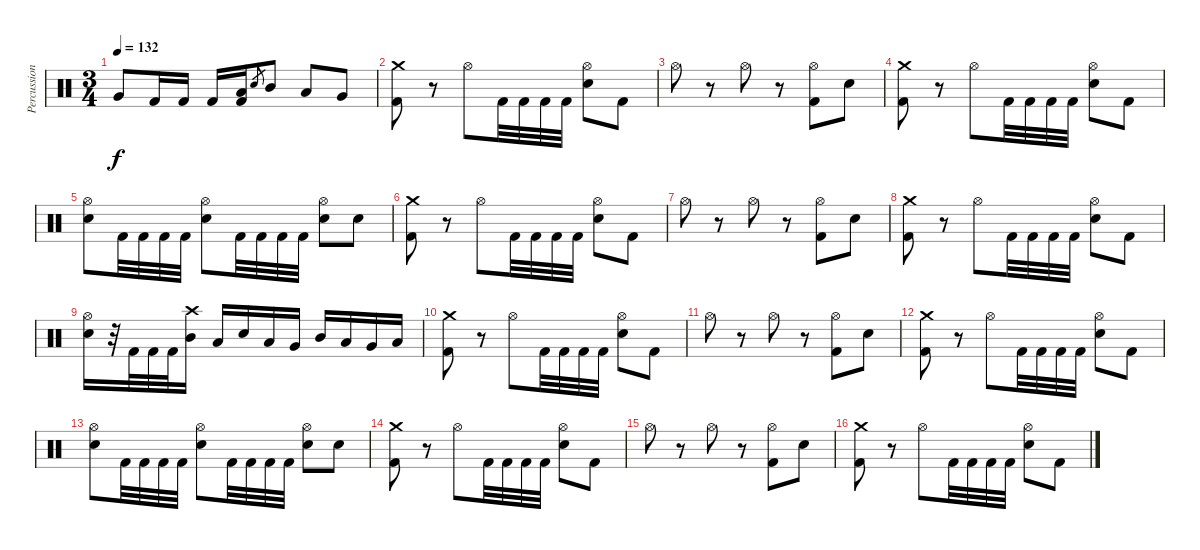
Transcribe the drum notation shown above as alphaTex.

\track ("Percussion" "Percussion") {instrument percussion}
\staff {score}
\articulation defaults
\ts (3 4)
\tempo 132
\clef neutral
\ks c "Very Low Tom (hit)".8{dy f} "Kick (hit) 2".16 "Kick (hit) 2".16 "Kick (hit) 2".16
("Low Tom (hit)" "Kick (hit) 2").16 "Electric Snare (hit)".8{gr} "Mid Tom (hit)".8 "Low Tom (hit)".8 "Very Low Tom (hit)".8 |
("Crash medium (hit)" "Kick (hit) 2").8 r.8 "Hi-Hat (open)".8 "Kick (hit) 2".32 "Kick (hit) 2".32 "Kick (hit) 2".32 "Kick (hit) 2".32 ("Hi-Hat (open)" "Electric Snare (hit)").8 "Kick (hit) 2".8 |
"Hi-Hat (open)".8 r.8 "Hi-Hat (open)".8 r.8 ("Hi-Hat (open)" "Kick (hit) 2").8 "Electric Snare (hit)".8 |
("Crash medium (hit)" "Kick (hit) 2").8 r.8 "Hi-Hat (open)".8 "Kick (hit) 2".32 "Kick (hit) 2".32 "Kick (hit) 2".32 "Kick (hit) 2".32 ("Hi-Hat (open)" "Electric Snare (hit)").8 "Kick (hit) 2".8 |
("Hi-Hat (open)" "Electric Snare (hit)").8 "Kick (hit) 2".32 "Kick (hit) 2".32 "Kick (hit) 2".32 "Kick (hit) 2".32 ("Hi-Hat (open)" "Electric Snare (hit)").8 "Kick (hit) 2".32 "Kick (hit) 2".32 "Kick (hit) 2".32 "Kick (hit) 2".32 ("Hi-Hat (open)" "Electric Snare (hit)").8 "Electric Snare (hit)".8 |
("Crash medium (hit)" "Kick (hit) 2").8 r.8 "Hi-Hat (open)".8 "Kick (hit) 2".32 "Kick (hit) 2".32 "Kick (hit) 2".32 "Kick (hit) 2".32 ("Hi-Hat (open)" "Electric Snare (hit)").8 "Kick (hit) 2".8 |
"Hi-Hat (open)".8 r.8 "Hi-Hat (open)".8 r.8 ("Hi-Hat (open)" "Kick (hit) 2").8 "Electric Snare (hit)".8 |
("Crash medium (hit)" "Kick (hit) 2").8 r.8 "Hi-Hat (open)".8 "Kick (hit) 2".32 "Kick (hit) 2".32 "Kick (hit) 2".32 "Kick (hit) 2".32 ("Hi-Hat (open)" "Electric Snare (hit)").8 "Kick (hit) 2".8 |
("Hi-Hat (open)" "Electric Snare (hit)").16 r.32 "Kick (hit) 2".32 "Kick (hit) 2".32 "Kick (hit) 2".32 ("Crash high (hit)" "Mid Tom (hit)").16 "Low Tom (hit)".16 "Electric Snare (hit)".16 "Low Tom (hit)".16 "Very Low Tom (hit)".16 "Mid Tom (hit)".16 "Low Tom (hit)".16 "Very Low Tom (hit)".16 "Low Floor Tom (hit)".16 |
("Crash medium (hit)" "Kick (hit) 2").8 r.8 "Hi-Hat (open)".8 "Kick (hit) 2".32 "Kick (hit) 2".32 "Kick (hit) 2".32 "Kick (hit) 2".32 ("Hi-Hat (open)" "Electric Snare (hit)").8 "Kick (hit) 2".8 |
"Hi-Hat (open)".8 r.8 "Hi-Hat (open)".8 r.8 ("Hi-Hat (open)" "Kick (hit) 2").8 "Electric Snare (hit)".8 |
("Crash medium (hit)" "Kick (hit) 2").8 r.8 "Hi-Hat (open)".8 "Kick (hit) 2".32 "Kick (hit) 2".32 "Kick (hit) 2".32 "Kick (hit) 2".32 ("Hi-Hat (open)" "Electric Snare (hit)").8 "Kick (hit) 2".8 |
("Hi-Hat (open)" "Electric Snare (hit)").8 "Kick (hit) 2".32 "Kick (hit) 2".32 "Kick (hit) 2".32 "Kick (hit) 2".32 ("Hi-Hat (open)" "Electric Snare (hit)").8 "Kick (hit) 2".32 "Kick (hit) 2".32 "Kick (hit) 2".32 "Kick (hit) 2".32 ("Hi-Hat (open)" "Electric Snare (hit)").8 "Electric Snare (hit)".8 |
("Crash medium (hit)" "Kick (hit) 2").8 r.8 "Hi-Hat (open)".8 "Kick (hit) 2".32 "Kick (hit) 2".32 "Kick (hit) 2".32 "Kick (hit) 2".32 ("Hi-Hat (open)" "Electric Snare (hit)").8 "Kick (hit) 2".8 |
"Hi-Hat (open)".8 r.8 "Hi-Hat (open)".8 r.8 ("Hi-Hat (open)" "Kick (hit) 2").8 "Electric Snare (hit)".8 |
("Crash medium (hit)" "Kick (hit) 2").8 r.8 "Hi-Hat (open)".8 "Kick (hit) 2".32 "Kick (hit) 2".32 "Kick (hit) 2".32 "Kick (hit) 2".32 ("Hi-Hat (open)" "Electric Snare (hit)").8 "Kick (hit) 2".8
